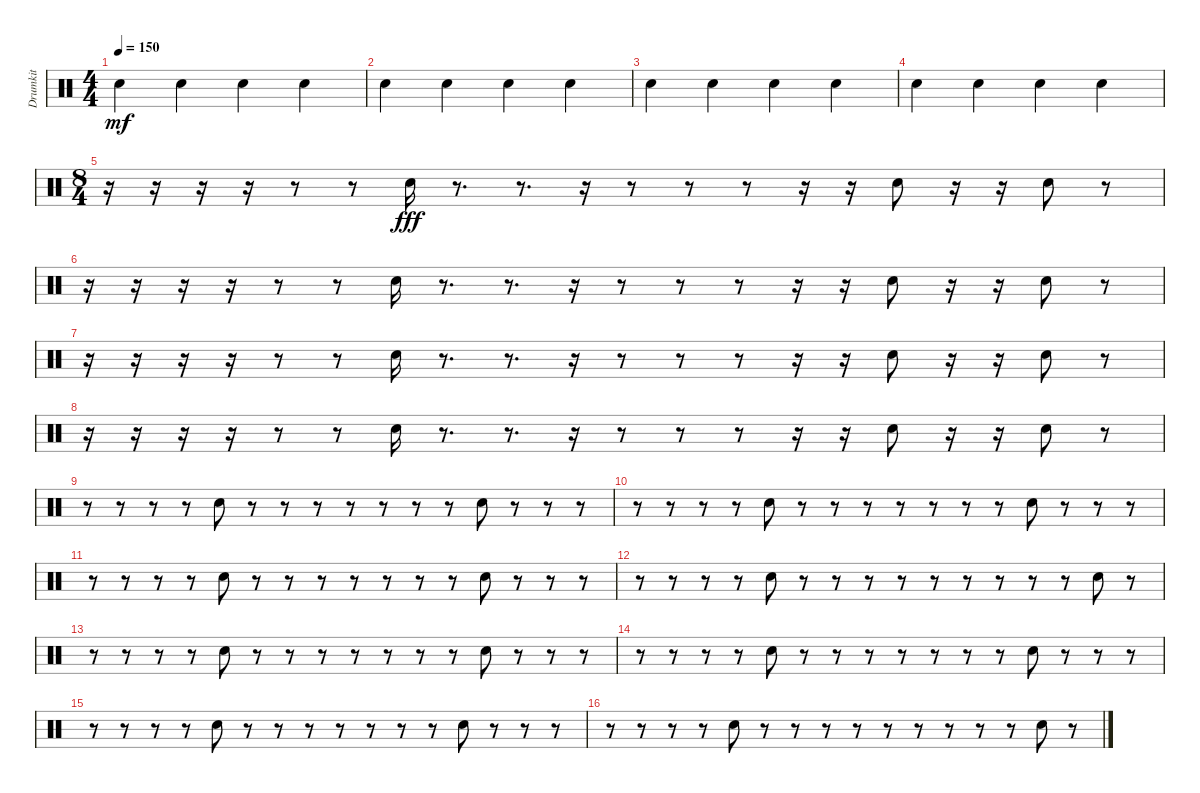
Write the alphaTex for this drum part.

\track ("Drumkit" "Drumkit") {instrument percussion}
\staff {score}
\articulation defaults
\ts (4 4)
\tempo 150
\clef neutral
\ks c "Snare (hit) 2".4{dy mf} "Snare (hit) 2".4 "Snare (hit) 2".4 "Snare (hit) 2".4
|
"Snare (hit) 2".4 "Snare (hit) 2".4 "Snare (hit) 2".4 "Snare (hit) 2".4 |
"Snare (hit) 2".4 "Snare (hit) 2".4 "Snare (hit) 2".4 "Snare (hit) 2".4 |
"Snare (hit) 2".4 "Snare (hit) 2".4 "Snare (hit) 2".4 "Snare (hit) 2".4 |
\ts (8 4)
r.16 r.16 r.16 r.16 r.8 r.8 "Snare (hit) 2".16{dy fff} r.8{d} r.8{d} r.16 r.8 r.8 r.8 r.16 r.16 "Snare (hit) 2".8 r.16 r.16 "Snare (hit) 2".8 r.8 |
r.16 r.16 r.16 r.16 r.8 r.8 "Snare (hit) 2".16 r.8{d} r.8{d} r.16 r.8 r.8 r.8 r.16 r.16 "Snare (hit) 2".8 r.16 r.16 "Snare (hit) 2".8 r.8 |
r.16 r.16 r.16 r.16 r.8 r.8 "Snare (hit) 2".16 r.8{d} r.8{d} r.16 r.8 r.8 r.8 r.16 r.16 "Snare (hit) 2".8 r.16 r.16 "Snare (hit) 2".8 r.8 |
r.16 r.16 r.16 r.16 r.8 r.8 "Snare (hit) 2".16 r.8{d} r.8{d} r.16 r.8 r.8 r.8 r.16 r.16 "Snare (hit) 2".8 r.16 r.16 "Snare (hit) 2".8 r.8 |
r.8 r.8 r.8 r.8 "Snare (hit) 2".8 r.8 r.8 r.8 r.8 r.8 r.8 r.8 "Snare (hit) 2".8 r.8 r.8 r.8 |
r.8 r.8 r.8 r.8 "Snare (hit) 2".8 r.8 r.8 r.8 r.8 r.8 r.8 r.8 "Snare (hit) 2".8 r.8 r.8 r.8 |
r.8 r.8 r.8 r.8 "Snare (hit) 2".8 r.8 r.8 r.8 r.8 r.8 r.8 r.8 "Snare (hit) 2".8 r.8 r.8 r.8 |
r.8 r.8 r.8 r.8 "Snare (hit) 2".8 r.8 r.8 r.8 r.8 r.8 r.8 r.8 r.8 r.8 "Snare (hit) 2".8 r.8 |
r.8 r.8 r.8 r.8 "Snare (hit) 2".8 r.8 r.8 r.8 r.8 r.8 r.8 r.8 "Snare (hit) 2".8 r.8 r.8 r.8 |
r.8 r.8 r.8 r.8 "Snare (hit) 2".8 r.8 r.8 r.8 r.8 r.8 r.8 r.8 "Snare (hit) 2".8 r.8 r.8 r.8 |
r.8 r.8 r.8 r.8 "Snare (hit) 2".8 r.8 r.8 r.8 r.8 r.8 r.8 r.8 "Snare (hit) 2".8 r.8 r.8 r.8 |
r.8 r.8 r.8 r.8 "Snare (hit) 2".8 r.8 r.8 r.8 r.8 r.8 r.8 r.8 r.8 r.8 "Snare (hit) 2".8 r.8
